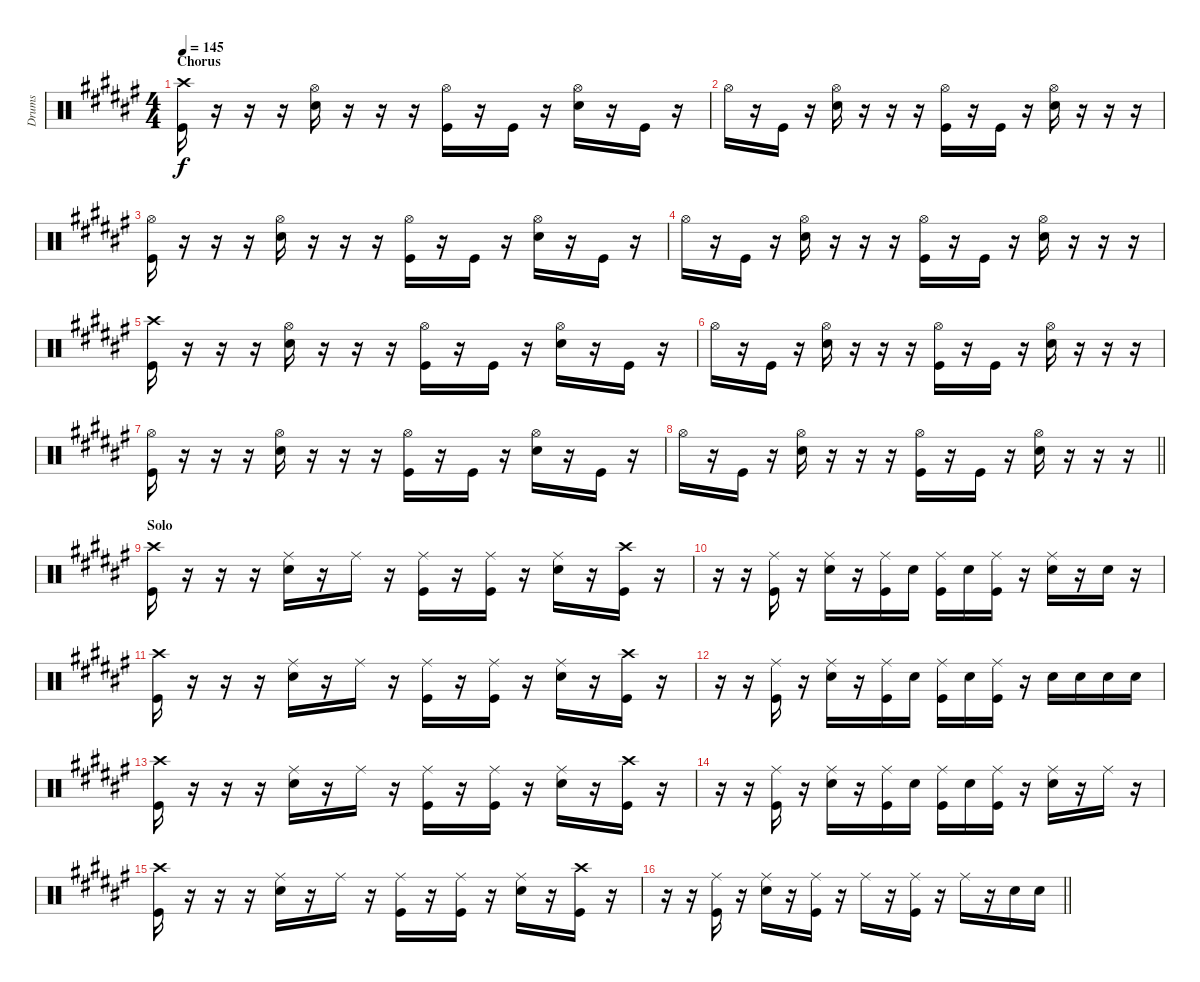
\track ("Drums" "Drums") {instrument percussion}
\staff {score}
\articulation defaults
\ts (4 4)
\section ("" "Chorus")
\tempo 145
\clef neutral
\ks f#
("Kick (hit)" "Crash high (hit)").16{dy f} r.16 r.16 r.16 ("Hi-Hat (open)" "Snare (hit) 2").16 r.16 r.16 r.16 ("Hi-Hat (open)" "Kick (hit)").16 r.16 "Kick (hit)".16 r.16 ("Hi-Hat (open)" "Snare (hit) 2").16 r.16 "Kick (hit)".16 r.16 |
"Hi-Hat (open)".16 r.16 "Kick (hit)".16 r.16 ("Hi-Hat (open)" "Snare (hit) 2").16 r.16 r.16 r.16 ("Hi-Hat (open)" "Kick (hit)").16 r.16 "Kick (hit)".16 r.16 ("Hi-Hat (open)" "Snare (hit) 2").16 r.16 r.16 r.16 |
("Hi-Hat (open)" "Kick (hit)").16 r.16 r.16 r.16 ("Hi-Hat (open)" "Snare (hit) 2").16 r.16 r.16 r.16 ("Hi-Hat (open)" "Kick (hit)").16 r.16 "Kick (hit)".16 r.16 ("Hi-Hat (open)" "Snare (hit) 2").16 r.16 "Kick (hit)".16 r.16 |
"Hi-Hat (open)".16 r.16 "Kick (hit)".16 r.16 ("Hi-Hat (open)" "Snare (hit) 2").16 r.16 r.16 r.16 ("Hi-Hat (open)" "Kick (hit)").16 r.16 "Kick (hit)".16 r.16 ("Hi-Hat (open)" "Snare (hit) 2").16 r.16 r.16 r.16 |
("Kick (hit)" "Crash high (hit)").16 r.16 r.16 r.16 ("Hi-Hat (open)" "Snare (hit) 2").16 r.16 r.16 r.16 ("Hi-Hat (open)" "Kick (hit)").16 r.16 "Kick (hit)".16 r.16 ("Hi-Hat (open)" "Snare (hit) 2").16 r.16 "Kick (hit)".16 r.16 |
"Hi-Hat (open)".16 r.16 "Kick (hit)".16 r.16 ("Hi-Hat (open)" "Snare (hit) 2").16 r.16 r.16 r.16 ("Hi-Hat (open)" "Kick (hit)").16 r.16 "Kick (hit)".16 r.16 ("Hi-Hat (open)" "Snare (hit) 2").16 r.16 r.16 r.16 |
("Hi-Hat (open)" "Kick (hit)").16 r.16 r.16 r.16 ("Hi-Hat (open)" "Snare (hit) 2").16 r.16 r.16 r.16 ("Hi-Hat (open)" "Kick (hit)").16 r.16 "Kick (hit)".16 r.16 ("Hi-Hat (open)" "Snare (hit) 2").16 r.16 "Kick (hit)".16 r.16 |
\barLineRight lightlight "Hi-Hat (open)".16
r.16 "Kick (hit)".16 r.16 ("Hi-Hat (open)" "Snare (hit) 2").16 r.16 r.16 r.16 ("Hi-Hat (open)" "Kick (hit)").16 r.16 "Kick (hit)".16 r.16 ("Hi-Hat (open)" "Snare (hit) 2").16 r.16 r.16 r.16 |
\section ("" "Solo")
("Kick (hit)" "Crash high (hit)").16 r.16 r.16 r.16 ("Snare (hit) 2" "Ride (middle)").16 r.16 "Ride (middle)".16 r.16 ("Kick (hit)" "Ride (middle)").16 r.16 ("Kick (hit)" "Ride (middle)").16 r.16 ("Snare (hit) 2" "Ride (middle)").16 r.16 ("Kick (hit)" "Crash high (hit)").16 r.16 |
r.16 r.16 ("Kick (hit)" "Ride (middle)").16 r.16 ("Snare (hit) 2" "Ride (middle)").16 r.16 ("Kick (hit)" "Ride (middle)").16 "Snare (hit) 2".16 ("Kick (hit)" "Ride (middle)").16 "Snare (hit) 2".16 ("Kick (hit)" "Ride (middle)").16 r.16 ("Snare (hit) 2" "Ride (middle)").16 r.16 "Snare (hit)".16 r.16 |
("Kick (hit)" "Crash high (hit)").16 r.16 r.16 r.16 ("Snare (hit) 2" "Ride (middle)").16 r.16 "Ride (middle)".16 r.16 ("Kick (hit)" "Ride (middle)").16 r.16 ("Kick (hit)" "Ride (middle)").16 r.16 ("Snare (hit) 2" "Ride (middle)").16 r.16 ("Kick (hit)" "Crash high (hit)").16 r.16 |
r.16 r.16 ("Kick (hit)" "Ride (middle)").16 r.16 ("Snare (hit) 2" "Ride (middle)").16 r.16 ("Kick (hit)" "Ride (middle)").16 "Snare (hit) 2".16 ("Kick (hit)" "Ride (middle)").16 "Snare (hit) 2".16 ("Kick (hit)" "Ride (middle)").16 r.16 "Snare (hit) 2".16 "Snare (hit) 2".16 "Snare (hit) 2".16 "Snare (hit) 2".16 |
("Kick (hit)" "Crash high (hit)").16 r.16 r.16 r.16 ("Snare (hit) 2" "Ride (middle)").16 r.16 "Ride (middle)".16 r.16 ("Kick (hit)" "Ride (middle)").16 r.16 ("Kick (hit)" "Ride (middle)").16 r.16 ("Snare (hit) 2" "Ride (middle)").16 r.16 ("Kick (hit)" "Crash high (hit)").16 r.16 |
r.16 r.16 ("Kick (hit)" "Ride (middle)").16 r.16 ("Snare (hit) 2" "Ride (middle)").16 r.16 ("Kick (hit)" "Ride (middle)").16 "Snare (hit) 2".16 ("Kick (hit)" "Ride (middle)").16 "Snare (hit) 2".16 ("Kick (hit)" "Ride (middle)").16 r.16 ("Snare (hit) 2" "Ride (middle)").16 r.16 "Ride (middle)".16 r.16 |
("Kick (hit)" "Crash high (hit)").16 r.16 r.16 r.16 ("Snare (hit) 2" "Ride (middle)").16 r.16 "Ride (middle)".16 r.16 ("Kick (hit)" "Ride (middle)").16 r.16 ("Kick (hit)" "Ride (middle)").16 r.16 ("Snare (hit) 2" "Ride (middle)").16 r.16 ("Kick (hit)" "Crash high (hit)").16 r.16 |
\barLineRight lightlight
r.16 r.16 ("Kick (hit)" "Ride (middle)").16 r.16 ("Snare (hit) 2" "Ride (middle)").16 r.16 ("Kick (hit)" "Ride (middle)").16 r.16 "Ride (middle)".16 r.16 ("Kick (hit)" "Ride (middle)").16 r.16 "Ride (middle)".16 r.16 "Snare (hit) 2".16 "Snare (hit) 2".16
